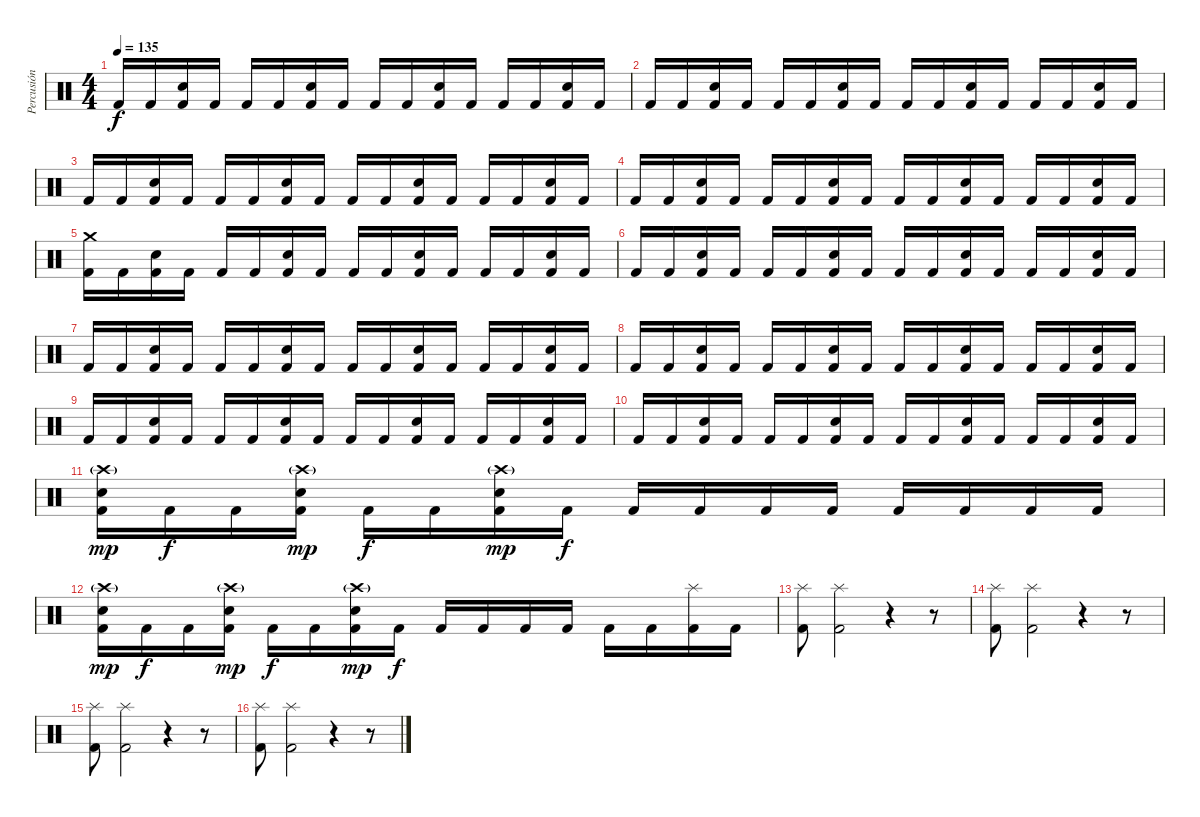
\track ("Percusión" "Percusión") {instrument percussion}
\staff {score}
\articulation defaults
\ts (4 4)
\tempo 135
\clef neutral
\ks c "Kick (hit) 2".16{dy f} "Kick (hit) 2".16
("Snare (hit) 2" "Kick (hit) 2").16 "Kick (hit) 2".16 "Kick (hit) 2".16 "Kick (hit) 2".16 ("Snare (hit) 2" "Kick (hit) 2").16 "Kick (hit) 2".16 "Kick (hit) 2".16 "Kick (hit) 2".16 ("Snare (hit) 2" "Kick (hit) 2").16 "Kick (hit) 2".16 "Kick (hit) 2".16 "Kick (hit) 2".16 ("Snare (hit) 2" "Kick (hit) 2").16 "Kick (hit) 2".16 |
"Kick (hit) 2".16 "Kick (hit) 2".16 ("Snare (hit) 2" "Kick (hit) 2").16 "Kick (hit) 2".16 "Kick (hit) 2".16 "Kick (hit) 2".16 ("Snare (hit) 2" "Kick (hit) 2").16 "Kick (hit) 2".16 "Kick (hit) 2".16 "Kick (hit) 2".16 ("Snare (hit) 2" "Kick (hit) 2").16 "Kick (hit) 2".16 "Kick (hit) 2".16 "Kick (hit) 2".16 ("Snare (hit) 2" "Kick (hit) 2").16 "Kick (hit) 2".16 |
"Kick (hit) 2".16 "Kick (hit) 2".16 ("Snare (hit) 2" "Kick (hit) 2").16 "Kick (hit) 2".16 "Kick (hit) 2".16 "Kick (hit) 2".16 ("Snare (hit) 2" "Kick (hit) 2").16 "Kick (hit) 2".16 "Kick (hit) 2".16 "Kick (hit) 2".16 ("Snare (hit) 2" "Kick (hit) 2").16 "Kick (hit) 2".16 "Kick (hit) 2".16 "Kick (hit) 2".16 ("Snare (hit) 2" "Kick (hit) 2").16 "Kick (hit) 2".16 |
"Kick (hit) 2".16 "Kick (hit) 2".16 ("Snare (hit) 2" "Kick (hit) 2").16 "Kick (hit) 2".16 "Kick (hit) 2".16 "Kick (hit) 2".16 ("Snare (hit) 2" "Kick (hit) 2").16 "Kick (hit) 2".16 "Kick (hit) 2".16 "Kick (hit) 2".16 ("Snare (hit) 2" "Kick (hit) 2").16 "Kick (hit) 2".16 "Kick (hit) 2".16 "Kick (hit) 2".16 ("Snare (hit) 2" "Kick (hit) 2").16 "Kick (hit) 2".16 |
("Crash medium (hit)" "Kick (hit) 2").16 "Kick (hit) 2".16 ("Snare (hit) 2" "Kick (hit) 2").16 "Kick (hit) 2".16 "Kick (hit) 2".16 "Kick (hit) 2".16 ("Snare (hit) 2" "Kick (hit) 2").16 "Kick (hit) 2".16 "Kick (hit) 2".16 "Kick (hit) 2".16 ("Snare (hit) 2" "Kick (hit) 2").16 "Kick (hit) 2".16 "Kick (hit) 2".16 "Kick (hit) 2".16 ("Snare (hit) 2" "Kick (hit) 2").16 "Kick (hit) 2".16 |
"Kick (hit) 2".16 "Kick (hit) 2".16 ("Snare (hit) 2" "Kick (hit) 2").16 "Kick (hit) 2".16 "Kick (hit) 2".16 "Kick (hit) 2".16 ("Snare (hit) 2" "Kick (hit) 2").16 "Kick (hit) 2".16 "Kick (hit) 2".16 "Kick (hit) 2".16 ("Snare (hit) 2" "Kick (hit) 2").16 "Kick (hit) 2".16 "Kick (hit) 2".16 "Kick (hit) 2".16 ("Snare (hit) 2" "Kick (hit) 2").16 "Kick (hit) 2".16 |
"Kick (hit) 2".16 "Kick (hit) 2".16 ("Snare (hit) 2" "Kick (hit) 2").16 "Kick (hit) 2".16 "Kick (hit) 2".16 "Kick (hit) 2".16 ("Snare (hit) 2" "Kick (hit) 2").16 "Kick (hit) 2".16 "Kick (hit) 2".16 "Kick (hit) 2".16 ("Snare (hit) 2" "Kick (hit) 2").16 "Kick (hit) 2".16 "Kick (hit) 2".16 "Kick (hit) 2".16 ("Snare (hit) 2" "Kick (hit) 2").16 "Kick (hit) 2".16 |
"Kick (hit) 2".16 "Kick (hit) 2".16 ("Snare (hit) 2" "Kick (hit) 2").16 "Kick (hit) 2".16 "Kick (hit) 2".16 "Kick (hit) 2".16 ("Snare (hit) 2" "Kick (hit) 2").16 "Kick (hit) 2".16 "Kick (hit) 2".16 "Kick (hit) 2".16 ("Snare (hit) 2" "Kick (hit) 2").16 "Kick (hit) 2".16 "Kick (hit) 2".16 "Kick (hit) 2".16 ("Snare (hit) 2" "Kick (hit) 2").16 "Kick (hit) 2".16 |
"Kick (hit) 2".16 "Kick (hit) 2".16 ("Snare (hit) 2" "Kick (hit) 2").16 "Kick (hit) 2".16 "Kick (hit) 2".16 "Kick (hit) 2".16 ("Snare (hit) 2" "Kick (hit) 2").16 "Kick (hit) 2".16 "Kick (hit) 2".16 "Kick (hit) 2".16 ("Snare (hit) 2" "Kick (hit) 2").16 "Kick (hit) 2".16 "Kick (hit) 2".16 "Kick (hit) 2".16 ("Snare (hit) 2" "Kick (hit) 2").16 "Kick (hit) 2".16 |
"Kick (hit) 2".16 "Kick (hit) 2".16 ("Snare (hit) 2" "Kick (hit) 2").16 "Kick (hit) 2".16 "Kick (hit) 2".16 "Kick (hit) 2".16 ("Snare (hit) 2" "Kick (hit) 2").16 "Kick (hit) 2".16 "Kick (hit) 2".16 "Kick (hit) 2".16 ("Snare (hit) 2" "Kick (hit) 2").16 "Kick (hit) 2".16 "Kick (hit) 2".16 "Kick (hit) 2".16 ("Snare (hit) 2" "Kick (hit) 2").16 "Kick (hit) 2".16 |
("Crash high (hit)"{g} "Snare (hit) 2" "Kick (hit) 2").16{dy mp} "Kick (hit) 2".16{dy f} "Kick (hit) 2".16 ("Crash high (hit)"{g} "Snare (hit) 2" "Kick (hit) 2").16{dy mp} "Kick (hit) 2".16{dy f} "Kick (hit) 2".16 ("Crash high (hit)"{g} "Snare (hit) 2" "Kick (hit) 2").16{dy mp} "Kick (hit) 2".16{dy f} "Kick (hit) 2".16 "Kick (hit) 2".16 "Kick (hit) 2".16 "Kick (hit) 2".16 "Kick (hit) 2".16 "Kick (hit) 2".16 "Kick (hit) 2".16 "Kick (hit) 2".16 |
("Crash high (hit)"{g} "Snare (hit) 2" "Kick (hit) 2").16{dy mp} "Kick (hit) 2".16{dy f} "Kick (hit) 2".16 ("Crash high (hit)"{g} "Snare (hit) 2" "Kick (hit) 2").16{dy mp} "Kick (hit) 2".16{dy f} "Kick (hit) 2".16 ("Crash high (hit)"{g} "Snare (hit) 2" "Kick (hit) 2").16{dy mp} "Kick (hit) 2".16{dy f} "Kick (hit) 2".16 "Kick (hit) 2".16 "Kick (hit) 2".16 "Kick (hit) 2".16 "Kick (hit) 2".16 "Kick (hit) 2".16 ("Splash (hit)" "Kick (hit) 2").16 "Kick (hit) 2".16 |
("Splash (hit)" "Kick (hit) 2").8 ("Splash (hit)" "Kick (hit) 2").2 r.4 r.8 |
("Splash (hit)" "Kick (hit) 2").8 ("Splash (hit)" "Kick (hit) 2").2 r.4 r.8 |
("Splash (hit)" "Kick (hit) 2").8 ("Splash (hit)" "Kick (hit) 2").2 r.4 r.8 |
("Splash (hit)" "Kick (hit) 2").8 ("Splash (hit)" "Kick (hit) 2").2 r.4 r.8
